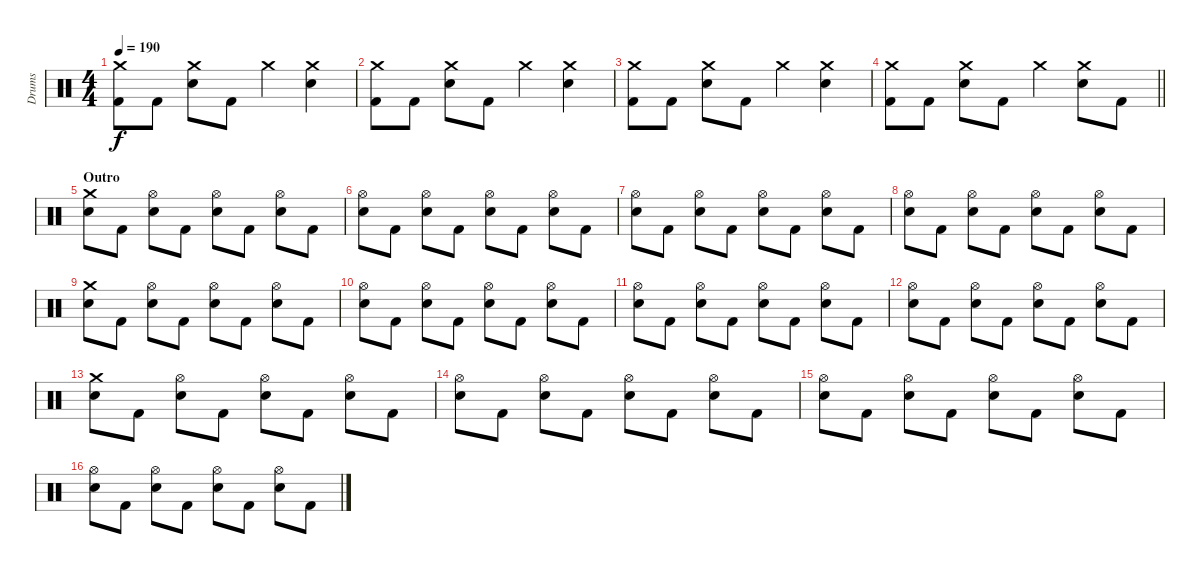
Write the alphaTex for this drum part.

\track ("Drums" "Drums") {instrument percussion}
\staff {score}
\articulation defaults
\ts (4 4)
\tempo 190
\clef neutral
\ks c
("Crash medium (hit)" "Kick (hit) 2").8{dy f} "Kick (hit) 2".8 ("Crash medium (hit)" "Electric Snare (hit)").8 "Kick (hit) 2".8 "Crash medium (hit)".4 ("Crash medium (hit)" "Electric Snare (hit)").4 |
("Crash medium (hit)" "Kick (hit) 2").8 "Kick (hit) 2".8 ("Crash medium (hit)" "Electric Snare (hit)").8 "Kick (hit) 2".8 "Crash medium (hit)".4 ("Crash medium (hit)" "Electric Snare (hit)").4 |
("Crash medium (hit)" "Kick (hit) 2").8 "Kick (hit) 2".8 ("Crash medium (hit)" "Electric Snare (hit)").8 "Kick (hit) 2".8 "Crash medium (hit)".4 ("Crash medium (hit)" "Electric Snare (hit)").4 |
\barLineRight lightlight
("Crash medium (hit)" "Kick (hit) 2").8 "Kick (hit) 2".8 ("Crash medium (hit)" "Electric Snare (hit)").8 "Kick (hit) 2".8 "Crash medium (hit)".4 ("Crash medium (hit)" "Electric Snare (hit)").8 "Kick (hit) 2".8 |
\section ("" "Outro")
("Crash medium (hit)" "Electric Snare (hit)").8 "Kick (hit) 2".8 ("Hi-Hat (open)" "Electric Snare (hit)").8 "Kick (hit) 2".8 ("Hi-Hat (open)" "Electric Snare (hit)").8 "Kick (hit) 2".8 ("Hi-Hat (open)" "Electric Snare (hit)").8 "Kick (hit) 2".8 |
("Hi-Hat (open)" "Electric Snare (hit)").8 "Kick (hit) 2".8 ("Hi-Hat (open)" "Electric Snare (hit)").8 "Kick (hit) 2".8 ("Hi-Hat (open)" "Electric Snare (hit)").8 "Kick (hit) 2".8 ("Hi-Hat (open)" "Electric Snare (hit)").8 "Kick (hit) 2".8 |
("Hi-Hat (open)" "Electric Snare (hit)").8 "Kick (hit) 2".8 ("Hi-Hat (open)" "Electric Snare (hit)").8 "Kick (hit) 2".8 ("Hi-Hat (open)" "Electric Snare (hit)").8 "Kick (hit) 2".8 ("Hi-Hat (open)" "Electric Snare (hit)").8 "Kick (hit) 2".8 |
("Hi-Hat (open)" "Electric Snare (hit)").8 "Kick (hit) 2".8 ("Hi-Hat (open)" "Electric Snare (hit)").8 "Kick (hit) 2".8 ("Hi-Hat (open)" "Electric Snare (hit)").8 "Kick (hit) 2".8 ("Hi-Hat (open)" "Electric Snare (hit)").8 "Kick (hit) 2".8 |
("Crash medium (hit)" "Electric Snare (hit)").8 "Kick (hit) 2".8 ("Hi-Hat (open)" "Electric Snare (hit)").8 "Kick (hit) 2".8 ("Hi-Hat (open)" "Electric Snare (hit)").8 "Kick (hit) 2".8 ("Hi-Hat (open)" "Electric Snare (hit)").8 "Kick (hit) 2".8 |
("Hi-Hat (open)" "Electric Snare (hit)").8 "Kick (hit) 2".8 ("Hi-Hat (open)" "Electric Snare (hit)").8 "Kick (hit) 2".8 ("Hi-Hat (open)" "Electric Snare (hit)").8 "Kick (hit) 2".8 ("Hi-Hat (open)" "Electric Snare (hit)").8 "Kick (hit) 2".8 |
("Hi-Hat (open)" "Electric Snare (hit)").8 "Kick (hit) 2".8 ("Hi-Hat (open)" "Electric Snare (hit)").8 "Kick (hit) 2".8 ("Hi-Hat (open)" "Electric Snare (hit)").8 "Kick (hit) 2".8 ("Hi-Hat (open)" "Electric Snare (hit)").8 "Kick (hit) 2".8 |
("Hi-Hat (open)" "Electric Snare (hit)").8 "Kick (hit) 2".8 ("Hi-Hat (open)" "Electric Snare (hit)").8 "Kick (hit) 2".8 ("Hi-Hat (open)" "Electric Snare (hit)").8 "Kick (hit) 2".8 ("Hi-Hat (open)" "Electric Snare (hit)").8 "Kick (hit) 2".8 |
("Crash medium (hit)" "Electric Snare (hit)").8 "Kick (hit) 2".8 ("Hi-Hat (open)" "Electric Snare (hit)").8 "Kick (hit) 2".8 ("Hi-Hat (open)" "Electric Snare (hit)").8 "Kick (hit) 2".8 ("Hi-Hat (open)" "Electric Snare (hit)").8 "Kick (hit) 2".8 |
("Hi-Hat (open)" "Electric Snare (hit)").8 "Kick (hit) 2".8 ("Hi-Hat (open)" "Electric Snare (hit)").8 "Kick (hit) 2".8 ("Hi-Hat (open)" "Electric Snare (hit)").8 "Kick (hit) 2".8 ("Hi-Hat (open)" "Electric Snare (hit)").8 "Kick (hit) 2".8 |
("Hi-Hat (open)" "Electric Snare (hit)").8 "Kick (hit) 2".8 ("Hi-Hat (open)" "Electric Snare (hit)").8 "Kick (hit) 2".8 ("Hi-Hat (open)" "Electric Snare (hit)").8 "Kick (hit) 2".8 ("Hi-Hat (open)" "Electric Snare (hit)").8 "Kick (hit) 2".8 |
("Hi-Hat (open)" "Electric Snare (hit)").8 "Kick (hit) 2".8 ("Hi-Hat (open)" "Electric Snare (hit)").8 "Kick (hit) 2".8 ("Hi-Hat (open)" "Electric Snare (hit)").8 "Kick (hit) 2".8 ("Hi-Hat (open)" "Electric Snare (hit)").8 "Kick (hit) 2".8
